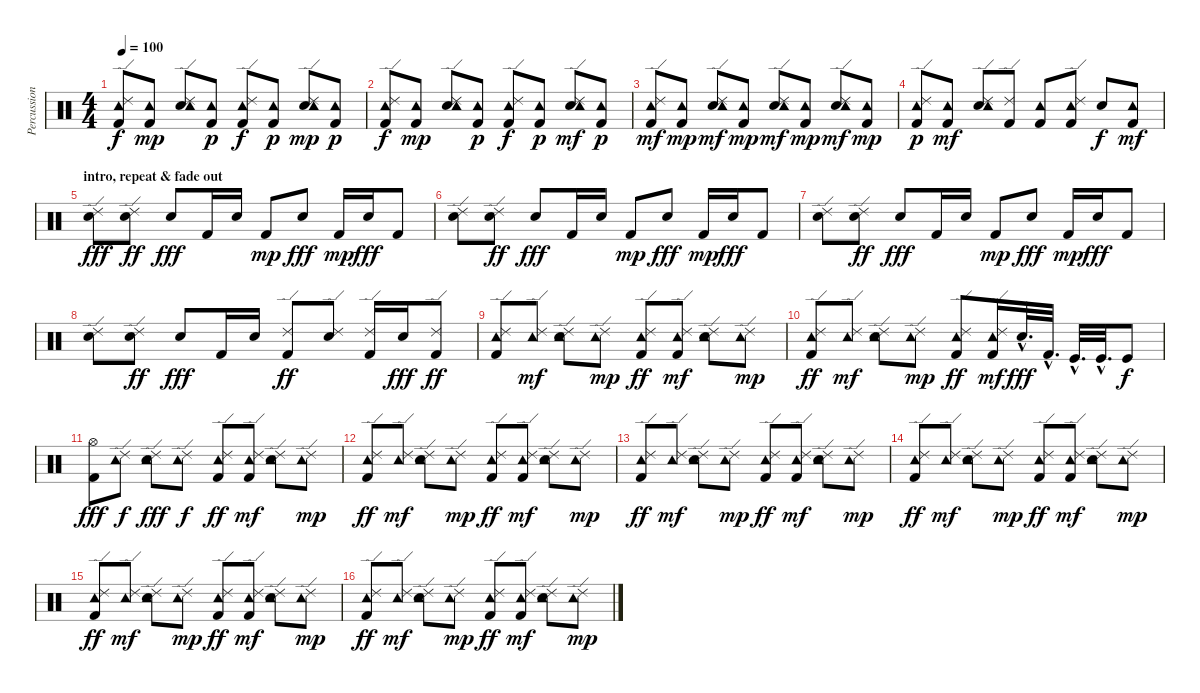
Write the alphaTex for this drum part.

\track ("Percussions" "Percussion") {instrument percussion}
\staff {score}
\articulation defaults
\ts (4 4)
\tempo 100
\clef neutral
\ks c
("Kick (hit) 2" "Tambourine (hit)" "Ride (edge) 2").8{dy f} ("Kick (hit) 2" "Tambourine (hit)").8{dy mp} ("Snare (hit) 2" "Tambourine (hit)" "Ride (edge) 2").8 ("Kick (hit) 2" "Tambourine (hit)").8{dy p} ("Kick (hit) 2" "Tambourine (hit)" "Ride (edge) 2").8{dy f} ("Kick (hit) 2" "Tambourine (hit)").8{dy p} ("Snare (hit) 2" "Tambourine (hit)" "Ride (edge) 2").8{dy mp} ("Kick (hit) 2" "Tambourine (hit)").8{dy p} |
("Kick (hit) 2" "Tambourine (hit)" "Ride (edge) 2").8{dy f} ("Kick (hit) 2" "Tambourine (hit)").8{dy mp} ("Snare (hit) 2" "Tambourine (hit)" "Ride (edge) 2").8 ("Kick (hit) 2" "Tambourine (hit)").8{dy p} ("Kick (hit) 2" "Tambourine (hit)" "Ride (edge) 2").8{dy f} ("Kick (hit) 2" "Tambourine (hit)").8{dy p} ("Snare (hit) 2" "Tambourine (hit)" "Ride (edge) 2").8{dy mf} ("Kick (hit) 2" "Tambourine (hit)").8{dy p} |
("Kick (hit) 2" "Tambourine (hit)" "Ride (edge) 2").8{dy mf} ("Kick (hit) 2" "Tambourine (hit)").8{dy mp} ("Snare (hit) 2" "Tambourine (hit)" "Ride (edge) 2").8{dy mf} ("Kick (hit) 2" "Tambourine (hit)").8{dy mp} ("Snare (hit) 2" "Tambourine (hit)" "Ride (edge) 2").8{dy mf} ("Kick (hit) 2" "Tambourine (hit)").8{dy mp} ("Snare (hit) 2" "Tambourine (hit)" "Ride (edge) 2").8{dy mf} ("Kick (hit) 2" "Tambourine (hit)").8{dy mp} |
("Kick (hit) 2" "Tambourine (hit)" "Ride (edge) 2").8{dy p} ("Kick (hit) 2" "Tambourine (hit)").8{dy mf} ("Snare (hit) 2" "Tambourine (hit)" "Ride (edge) 2").8 ("Kick (hit) 2" "Ride (edge) 2").8 ("Kick (hit) 2" "Tambourine (hit)").8 ("Kick (hit) 2" "Tambourine (hit)" "Ride (edge) 2").8 "Snare (hit) 2".8{dy f} ("Kick (hit) 2" "Tambourine (hit)").8{dy mf} |
\section ("" "intro, repeat & fade out")
("Snare (hit) 2" "Ride (edge) 2").8{dy fff} ("Snare (hit) 2" "Ride (edge) 2").8{dy ff} "Snare (hit) 2".8{dy fff} "Kick (hit) 2".16 "Snare (hit) 2".16 "Kick (hit) 2".8{dy mp} "Snare (hit) 2".8{dy fff} "Kick (hit) 2".16{dy mp} "Snare (hit) 2".16{dy fff} "Kick (hit) 2".8 |
("Snare (hit) 2" "Ride (edge) 2").8 ("Snare (hit) 2" "Ride (edge) 2").8{dy ff} "Snare (hit) 2".8{dy fff} "Kick (hit) 2".16 "Snare (hit) 2".16 "Kick (hit) 2".8{dy mp} "Snare (hit) 2".8{dy fff} "Kick (hit) 2".16{dy mp} "Snare (hit) 2".16{dy fff} "Kick (hit) 2".8 |
("Snare (hit) 2" "Ride (edge) 2").8 ("Snare (hit) 2" "Ride (edge) 2").8{dy ff} "Snare (hit) 2".8{dy fff} "Kick (hit) 2".16 "Snare (hit) 2".16 "Kick (hit) 2".8{dy mp} "Snare (hit) 2".8{dy fff} "Kick (hit) 2".16{dy mp} "Snare (hit) 2".16{dy fff} "Kick (hit) 2".8 |
("Snare (hit) 2" "Ride (edge) 2").8 ("Snare (hit) 2" "Ride (edge) 2").8{dy ff} "Snare (hit) 2".8{dy fff} "Kick (hit) 2".16 "Snare (hit) 2".16 ("Kick (hit) 2" "Ride (edge) 2").8{dy ff} ("Snare (hit) 2" "Ride (edge) 2").8 ("Kick (hit) 2" "Ride (edge) 2").16 "Snare (hit) 2".16{dy fff} ("Kick (hit) 2" "Ride (edge) 2").8{dy ff} |
("Kick (hit) 2" "Tambourine (hit)" "Ride (edge) 2").8 ("Tambourine (hit)" "Ride (edge) 2").8{dy mf} ("Snare (hit) 2" "Tambourine (hit)" "Ride (edge) 2").8 ("Tambourine (hit)" "Ride (edge) 2").8{dy mp} ("Kick (hit) 2" "Tambourine (hit)" "Ride (edge) 2").8{dy ff} ("Kick (hit) 2" "Tambourine (hit)" "Ride (edge) 2").8{dy mf} ("Snare (hit) 2" "Tambourine (hit)" "Ride (edge) 2").8 ("Tambourine (hit)" "Ride (edge) 2").8{dy mp} |
("Kick (hit) 2" "Tambourine (hit)" "Ride (edge) 2").8{dy ff} ("Tambourine (hit)" "Ride (edge) 2").8{dy mf} ("Snare (hit) 2" "Tambourine (hit)" "Ride (edge) 2").8 ("Tambourine (hit)" "Ride (edge) 2").8{dy mp} ("Kick (hit) 2" "Tambourine (hit)" "Ride (edge) 2").8{dy ff} ("Kick (hit) 2" "Tambourine (hit)" "Ride (edge) 2").16{dy mf} "Snare (hit) 2"{hac}.32{d dy fff} "Kick (hit) 2"{hac}.32{d} "Kick (hit)"{hac}.32{d} "Kick (hit)"{hac}.32{d} "Kick (hit)".8{dy f} |
("Kick (hit) 2" "Hi-Hat (open)").8{dy fff} ("Tambourine (hit)" "Ride (edge) 2").8{dy f} ("Snare (hit) 2" "Tambourine (hit)" "Ride (edge) 2").8{dy fff} ("Tambourine (hit)" "Ride (edge) 2").8{dy f} ("Kick (hit) 2" "Tambourine (hit)" "Ride (edge) 2").8{dy ff} ("Kick (hit) 2" "Tambourine (hit)" "Ride (edge) 2").8{dy mf} ("Snare (hit) 2" "Tambourine (hit)" "Ride (edge) 2").8 ("Tambourine (hit)" "Ride (edge) 2").8{dy mp} |
("Kick (hit) 2" "Tambourine (hit)" "Ride (edge) 2").8{dy ff} ("Tambourine (hit)" "Ride (edge) 2").8{dy mf} ("Snare (hit) 2" "Tambourine (hit)" "Ride (edge) 2").8 ("Tambourine (hit)" "Ride (edge) 2").8{dy mp} ("Kick (hit) 2" "Tambourine (hit)" "Ride (edge) 2").8{dy ff} ("Kick (hit) 2" "Tambourine (hit)" "Ride (edge) 2").8{dy mf} ("Snare (hit) 2" "Tambourine (hit)" "Ride (edge) 2").8 ("Tambourine (hit)" "Ride (edge) 2").8{dy mp} |
("Kick (hit) 2" "Tambourine (hit)" "Ride (edge) 2").8{dy ff} ("Tambourine (hit)" "Ride (edge) 2").8{dy mf} ("Snare (hit) 2" "Tambourine (hit)" "Ride (edge) 2").8 ("Tambourine (hit)" "Ride (edge) 2").8{dy mp} ("Kick (hit) 2" "Tambourine (hit)" "Ride (edge) 2").8{dy ff} ("Kick (hit) 2" "Tambourine (hit)" "Ride (edge) 2").8{dy mf} ("Snare (hit) 2" "Tambourine (hit)" "Ride (edge) 2").8 ("Tambourine (hit)" "Ride (edge) 2").8{dy mp} |
("Kick (hit) 2" "Tambourine (hit)" "Ride (edge) 2").8{dy ff} ("Tambourine (hit)" "Ride (edge) 2").8{dy mf} ("Snare (hit) 2" "Tambourine (hit)" "Ride (edge) 2").8 ("Tambourine (hit)" "Ride (edge) 2").8{dy mp} ("Kick (hit) 2" "Tambourine (hit)" "Ride (edge) 2").8{dy ff} ("Kick (hit) 2" "Tambourine (hit)" "Ride (edge) 2").8{dy mf} ("Snare (hit) 2" "Tambourine (hit)" "Ride (edge) 2").8 ("Tambourine (hit)" "Ride (edge) 2").8{dy mp} |
("Kick (hit) 2" "Tambourine (hit)" "Ride (edge) 2").8{dy ff volume 2} ("Tambourine (hit)" "Ride (edge) 2").8{dy mf} ("Snare (hit) 2" "Tambourine (hit)" "Ride (edge) 2").8 ("Tambourine (hit)" "Ride (edge) 2").8{dy mp} ("Kick (hit) 2" "Tambourine (hit)" "Ride (edge) 2").8{dy ff} ("Kick (hit) 2" "Tambourine (hit)" "Ride (edge) 2").8{dy mf} ("Snare (hit) 2" "Tambourine (hit)" "Ride (edge) 2").8 ("Tambourine (hit)" "Ride (edge) 2").8{dy mp} |
("Kick (hit) 2" "Tambourine (hit)" "Ride (edge) 2").8{dy ff} ("Tambourine (hit)" "Ride (edge) 2").8{dy mf} ("Snare (hit) 2" "Tambourine (hit)" "Ride (edge) 2").8 ("Tambourine (hit)" "Ride (edge) 2").8{dy mp} ("Kick (hit) 2" "Tambourine (hit)" "Ride (edge) 2").8{dy ff} ("Kick (hit) 2" "Tambourine (hit)" "Ride (edge) 2").8{dy mf} ("Snare (hit) 2" "Tambourine (hit)" "Ride (edge) 2").8 ("Tambourine (hit)" "Ride (edge) 2").8{dy mp}
